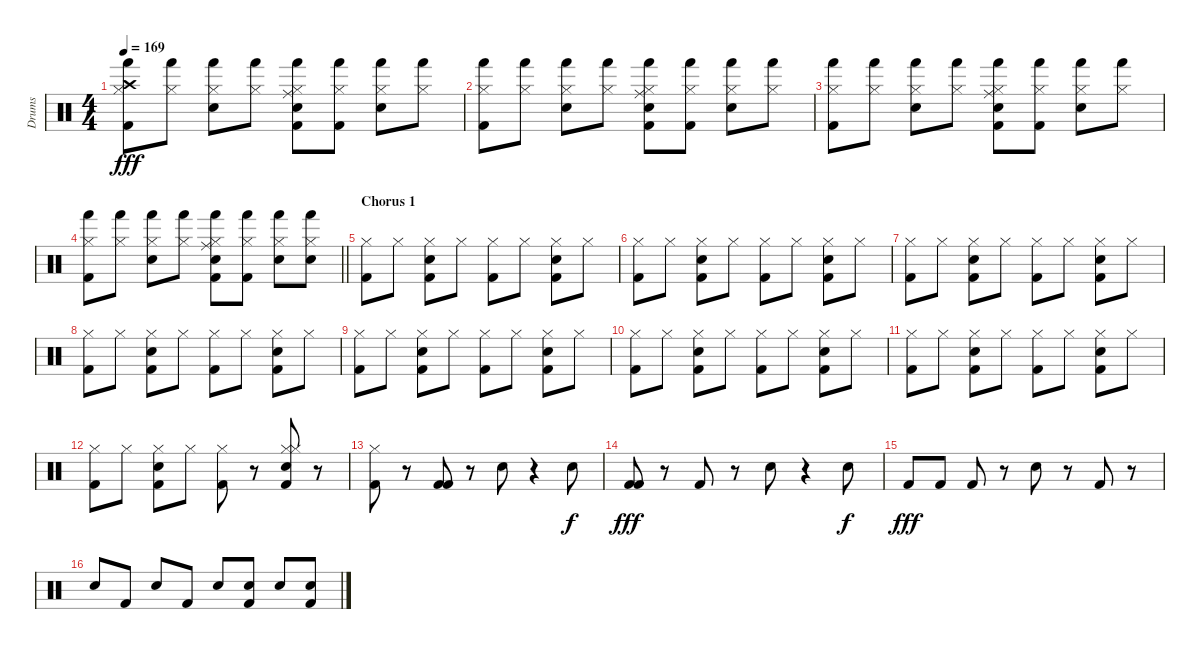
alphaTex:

\track ("Drums" "Drums") {instrument percussion}
\staff {score}
\articulation defaults
\ts (4 4)
\tempo 169
\clef neutral
\ks c
("Kick (hit) 2" "Hand (hit)" "Hi-Hat (closed)" "Crash high (hit)").8{dy fff} ("Hand (hit)" "Hi-Hat (closed)").8 ("Snare (hit) 2" "Hand (hit)" "Hi-Hat (closed)").8 ("Hand (hit)" "Hi-Hat (closed)").8 ("Kick (hit) 2" "Hand (hit)" "Electric Snare (hit)" "Ride (middle)" "Hi-Hat (closed)").8 ("Kick (hit) 2" "Hand (hit)" "Hi-Hat (closed)").8 ("Snare (hit) 2" "Hand (hit)" "Hi-Hat (closed)").8 ("Hand (hit)" "Hi-Hat (closed)").8 |
("Kick (hit) 2" "Hand (hit)" "Hi-Hat (closed)").8 ("Hand (hit)" "Hi-Hat (closed)").8 ("Snare (hit) 2" "Hand (hit)" "Hi-Hat (closed)").8 ("Hand (hit)" "Hi-Hat (closed)").8 ("Kick (hit) 2" "Hand (hit)" "Ride (middle)" "Electric Snare (hit)" "Hi-Hat (closed)").8 ("Kick (hit) 2" "Hand (hit)" "Hi-Hat (closed)").8 ("Snare (hit) 2" "Hand (hit)" "Hi-Hat (closed)").8 ("Hand (hit)" "Hi-Hat (closed)").8 |
("Kick (hit) 2" "Hand (hit)" "Hi-Hat (closed)").8 ("Hand (hit)" "Hi-Hat (closed)").8 ("Snare (hit) 2" "Hand (hit)" "Hi-Hat (closed)").8 ("Hand (hit)" "Hi-Hat (closed)").8 ("Kick (hit) 2" "Hand (hit)" "Electric Snare (hit)" "Ride (middle)" "Hi-Hat (closed)").8 ("Kick (hit) 2" "Hand (hit)" "Hi-Hat (closed)").8 ("Snare (hit) 2" "Hand (hit)" "Hi-Hat (closed)").8 ("Hand (hit)" "Hi-Hat (closed)").8 |
\barLineRight lightlight
("Kick (hit) 2" "Hand (hit)" "Hi-Hat (closed)").8 ("Hand (hit)" "Hi-Hat (closed)").8 ("Snare (hit) 2" "Hand (hit)" "Hi-Hat (closed)").8 ("Hand (hit)" "Hi-Hat (closed)").8 ("Kick (hit) 2" "Hand (hit)" "Ride (middle)" "Electric Snare (hit)" "Hi-Hat (closed)").8 ("Kick (hit) 2" "Hand (hit)" "Hi-Hat (closed)").8 ("Snare (hit) 2" "Hand (hit)" "Hi-Hat (closed)").8 ("Snare (hit) 2" "Hand (hit)" "Hi-Hat (closed)").8 |
\section ("" "Chorus 1")
("Kick (hit) 2" "Hi-Hat (closed)").8 "Hi-Hat (closed)".8 ("Kick (hit) 2" "Snare (hit) 2" "Hi-Hat (closed)").8 "Hi-Hat (closed)".8 ("Kick (hit) 2" "Hi-Hat (closed)").8 "Hi-Hat (closed)".8 ("Kick (hit) 2" "Snare (hit) 2" "Hi-Hat (closed)").8 "Hi-Hat (closed)".8 |
("Kick (hit) 2" "Hi-Hat (closed)").8 "Hi-Hat (closed)".8 ("Snare (hit) 2" "Kick (hit) 2" "Hi-Hat (closed)").8 "Hi-Hat (closed)".8 ("Kick (hit) 2" "Hi-Hat (closed)").8 "Hi-Hat (closed)".8 ("Kick (hit) 2" "Snare (hit) 2" "Hi-Hat (closed)").8 "Hi-Hat (closed)".8 |
("Kick (hit) 2" "Hi-Hat (closed)").8 "Hi-Hat (closed)".8 ("Snare (hit) 2" "Kick (hit) 2" "Hi-Hat (closed)").8 "Hi-Hat (closed)".8 ("Kick (hit) 2" "Hi-Hat (closed)").8 "Hi-Hat (closed)".8 ("Snare (hit) 2" "Kick (hit) 2" "Hi-Hat (closed)").8 "Hi-Hat (closed)".8 |
("Kick (hit) 2" "Hi-Hat (closed)").8 "Hi-Hat (closed)".8 ("Kick (hit) 2" "Snare (hit) 2" "Hi-Hat (closed)").8 "Hi-Hat (closed)".8 ("Kick (hit) 2" "Hi-Hat (closed)").8 "Hi-Hat (closed)".8 ("Kick (hit) 2" "Snare (hit) 2" "Hi-Hat (closed)").8 "Hi-Hat (closed)".8 |
("Kick (hit) 2" "Hi-Hat (closed)").8 "Hi-Hat (closed)".8 ("Kick (hit) 2" "Snare (hit) 2" "Hi-Hat (closed)").8 "Hi-Hat (closed)".8 ("Kick (hit) 2" "Hi-Hat (closed)").8 "Hi-Hat (closed)".8 ("Snare (hit) 2" "Kick (hit) 2" "Hi-Hat (closed)").8 "Hi-Hat (closed)".8 |
("Kick (hit) 2" "Hi-Hat (closed)").8 "Hi-Hat (closed)".8 ("Kick (hit) 2" "Snare (hit) 2" "Hi-Hat (closed)").8 "Hi-Hat (closed)".8 ("Kick (hit) 2" "Hi-Hat (closed)").8 "Hi-Hat (closed)".8 ("Snare (hit) 2" "Kick (hit) 2" "Hi-Hat (closed)").8 "Hi-Hat (closed)".8 |
("Kick (hit) 2" "Hi-Hat (closed)").8 "Hi-Hat (closed)".8 ("Snare (hit) 2" "Kick (hit) 2" "Hi-Hat (closed)").8 "Hi-Hat (closed)".8 ("Kick (hit) 2" "Hi-Hat (closed)").8 "Hi-Hat (closed)".8 ("Kick (hit) 2" "Snare (hit) 2" "Hi-Hat (closed)").8 "Hi-Hat (closed)".8 |
("Kick (hit) 2" "Hi-Hat (closed)").8 "Hi-Hat (closed)".8 ("Kick (hit) 2" "Snare (hit) 2" "Hi-Hat (closed)").8 "Hi-Hat (closed)".8 ("Kick (hit) 2" "Hi-Hat (closed)").8 r.8 ("Hi-Hat (closed)" "Snare (hit) 2" "Kick (hit) 2" "Hi-Hat (closed)").8 r.8 |
("Hi-Hat (closed)" "Kick (hit) 2").8 r.8 ("Kick (hit) 2" "Kick (hit) 2").8 r.8 "Snare (hit) 2".8 r.4 "Snare (hit) 2".8{dy f} |
("Kick (hit) 2" "Kick (hit) 2").8{dy fff} r.8 "Kick (hit) 2".8 r.8 "Snare (hit) 2".8 r.4 "Snare (hit) 2".8{dy f} |
"Kick (hit) 2".8{dy fff} "Kick (hit) 2".8 "Kick (hit) 2".8 r.8 "Snare (hit) 2".8 r.8 "Kick (hit) 2".8 r.8 |
"Snare (hit) 2".8 "Kick (hit) 2".8 "Snare (hit) 2".8 "Kick (hit) 2".8 "Snare (hit) 2".8 ("Kick (hit) 2" "Snare (hit) 2").8 "Snare (hit) 2".8 ("Snare (hit) 2" "Kick (hit) 2").8
